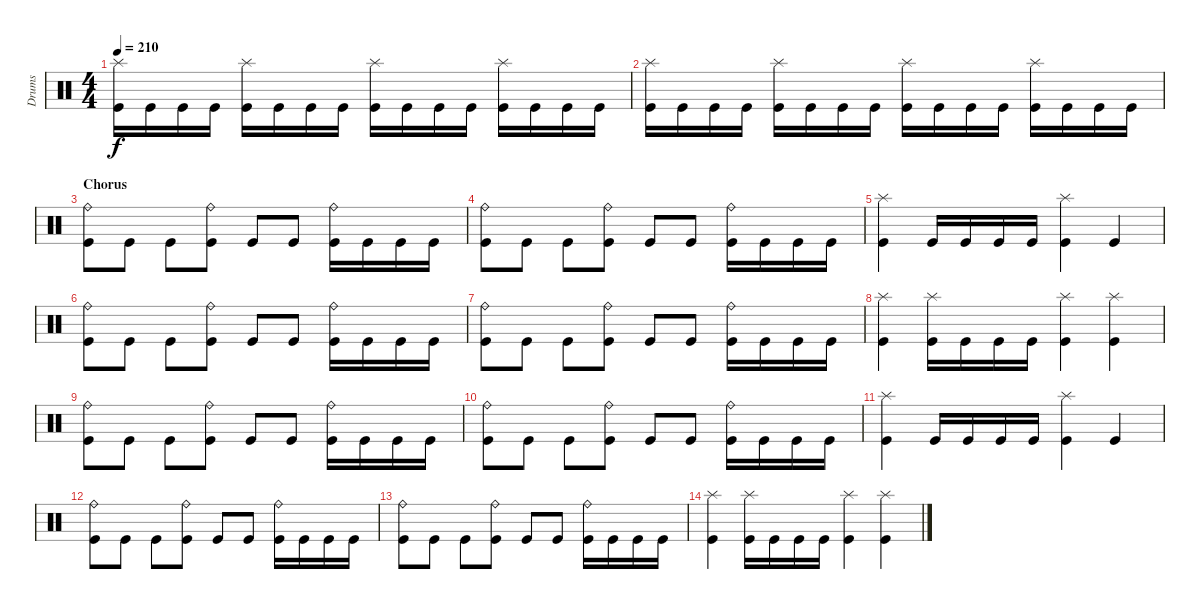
\track ("Drums" "Drums") {instrument percussion}
\staff {score}
\articulation defaults
\ts (4 4)
\tempo 210
\clef neutral
\ks c
("Splash (hit)" "Kick (hit)").16{dy f} "Kick (hit)".16 "Kick (hit)".16 "Kick (hit)".16 ("Splash (hit)" "Kick (hit)").16 "Kick (hit)".16 "Kick (hit)".16 "Kick (hit)".16 ("Splash (hit)" "Kick (hit)").16 "Kick (hit)".16 "Kick (hit)".16 "Kick (hit)".16 ("Splash (hit)" "Kick (hit)").16 "Kick (hit)".16 "Kick (hit)".16 "Kick (hit)".16 |
("Splash (hit)" "Kick (hit)").16 "Kick (hit)".16 "Kick (hit)".16 "Kick (hit)".16 ("Splash (hit)" "Kick (hit)").16 "Kick (hit)".16 "Kick (hit)".16 "Kick (hit)".16 ("Splash (hit)" "Kick (hit)").16 "Kick (hit)".16 "Kick (hit)".16 "Kick (hit)".16 ("Splash (hit)" "Kick (hit)").16 "Kick (hit)".16 "Kick (hit)".16 "Kick (hit)".16 |
\section ("" "Chorus")
("Ride (bell)" "Kick (hit)").8 "Kick (hit)".8 "Kick (hit)".8 ("Ride (bell)" "Kick (hit)").8 "Kick (hit)".8 "Kick (hit)".8 ("Ride (bell)" "Kick (hit)").16 "Kick (hit)".16 "Kick (hit)".16 "Kick (hit)".16 |
("Ride (bell)" "Kick (hit)").8 "Kick (hit)".8 "Kick (hit)".8 ("Ride (bell)" "Kick (hit)").8 "Kick (hit)".8 "Kick (hit)".8 ("Ride (bell)" "Kick (hit)").16 "Kick (hit)".16 "Kick (hit)".16 "Kick (hit)".16 |
("Splash (hit)" "Kick (hit)").4 "Kick (hit)".16 "Kick (hit)".16 "Kick (hit)".16 "Kick (hit)".16 ("Splash (hit)" "Kick (hit)").4 "Kick (hit)".4 |
("Ride (bell)" "Kick (hit)").8 "Kick (hit)".8 "Kick (hit)".8 ("Ride (bell)" "Kick (hit)").8 "Kick (hit)".8 "Kick (hit)".8 ("Ride (bell)" "Kick (hit)").16 "Kick (hit)".16 "Kick (hit)".16 "Kick (hit)".16 |
("Ride (bell)" "Kick (hit)").8 "Kick (hit)".8 "Kick (hit)".8 ("Ride (bell)" "Kick (hit)").8 "Kick (hit)".8 "Kick (hit)".8 ("Ride (bell)" "Kick (hit)").16 "Kick (hit)".16 "Kick (hit)".16 "Kick (hit)".16 |
("Splash (hit)" "Kick (hit)").4 ("Splash (hit)" "Kick (hit)").16 "Kick (hit)".16 "Kick (hit)".16 "Kick (hit)".16 ("Splash (hit)" "Kick (hit)").4 ("Splash (hit)" "Kick (hit)").4 |
("Ride (bell)" "Kick (hit)").8 "Kick (hit)".8 "Kick (hit)".8 ("Ride (bell)" "Kick (hit)").8 "Kick (hit)".8 "Kick (hit)".8 ("Ride (bell)" "Kick (hit)").16 "Kick (hit)".16 "Kick (hit)".16 "Kick (hit)".16 |
("Ride (bell)" "Kick (hit)").8 "Kick (hit)".8 "Kick (hit)".8 ("Ride (bell)" "Kick (hit)").8 "Kick (hit)".8 "Kick (hit)".8 ("Ride (bell)" "Kick (hit)").16 "Kick (hit)".16 "Kick (hit)".16 "Kick (hit)".16 |
("Splash (hit)" "Kick (hit)").4 "Kick (hit)".16 "Kick (hit)".16 "Kick (hit)".16 "Kick (hit)".16 ("Splash (hit)" "Kick (hit)").4 "Kick (hit)".4 |
("Ride (bell)" "Kick (hit)").8 "Kick (hit)".8 "Kick (hit)".8 ("Ride (bell)" "Kick (hit)").8 "Kick (hit)".8 "Kick (hit)".8 ("Ride (bell)" "Kick (hit)").16 "Kick (hit)".16 "Kick (hit)".16 "Kick (hit)".16 |
("Ride (bell)" "Kick (hit)").8 "Kick (hit)".8 "Kick (hit)".8 ("Ride (bell)" "Kick (hit)").8 "Kick (hit)".8 "Kick (hit)".8 ("Ride (bell)" "Kick (hit)").16 "Kick (hit)".16 "Kick (hit)".16 "Kick (hit)".16 |
("Splash (hit)" "Kick (hit)").4 ("Splash (hit)" "Kick (hit)").16 "Kick (hit)".16 "Kick (hit)".16 "Kick (hit)".16 ("Splash (hit)" "Kick (hit)").4 ("Splash (hit)" "Kick (hit)").4
